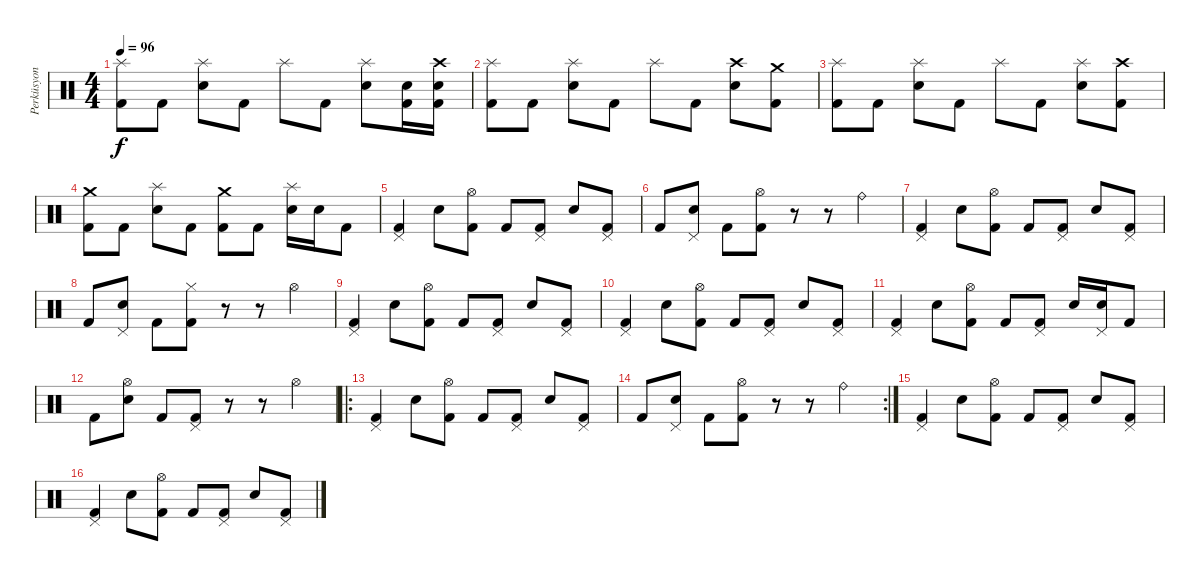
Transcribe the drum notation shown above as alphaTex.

\track ("Perküsyon" "Perküsyon") {instrument percussion}
\staff {score}
\articulation defaults
\ts (4 4)
\tempo 96
\clef neutral
\ks c
("Kick (hit) 2" "Splash (hit)").8{dy f} "Kick (hit) 2".8 ("Snare (hit) 2" "Splash (hit)").8 "Kick (hit) 2".8 "Splash (hit)".8 "Kick (hit) 2".8 ("Snare (hit) 2" "Splash (hit)").8 ("Kick (hit) 2" "Snare (hit) 2").16 ("Kick (hit) 2" "Crash high (hit)" "Snare (hit) 2").16 |
("Kick (hit) 2" "Splash (hit)").8 "Kick (hit) 2".8 ("Snare (hit) 2" "Splash (hit)").8 "Kick (hit) 2".8 "Splash (hit)".8 "Kick (hit) 2".8 ("Snare (hit) 2" "Crash high (hit)").8 ("Kick (hit) 2" "Crash medium (hit)").8 |
("Kick (hit) 2" "Splash (hit)").8 "Kick (hit) 2".8 ("Snare (hit) 2" "Splash (hit)").8 "Kick (hit) 2".8 "Splash (hit)".8 "Kick (hit) 2".8 ("Snare (hit) 2" "Splash (hit)").8 ("Kick (hit) 2" "Crash high (hit)").8 |
("Kick (hit) 2" "Crash medium (hit)").8 "Kick (hit) 2".8 ("Snare (hit) 2" "Splash (hit)").8 "Kick (hit) 2".8 ("Kick (hit) 2" "Crash medium (hit)").8 "Kick (hit) 2".8 ("Snare (hit) 2" "Splash (hit)").16 "Snare (hit) 2".16 "Kick (hit) 2".8 |
("Kick (hit) 2" "Pedal Hi-Hat (hit)").4 "Snare (hit) 2".8 ("Kick (hit) 2" "Hi-Hat (open)").8 "Kick (hit) 2".8 ("Kick (hit) 2" "Pedal Hi-Hat (hit)").8 "Snare (hit) 2".8 ("Kick (hit) 2" "Pedal Hi-Hat (hit)").8 |
"Kick (hit) 2".8 ("Snare (hit) 2" "Pedal Hi-Hat (hit)").8 "Kick (hit) 2".8 ("Kick (hit) 2" "Hi-Hat (open)").8 r.8 r.8 "Ride (bell)".4 |
("Kick (hit) 2" "Pedal Hi-Hat (hit)").4 "Snare (hit) 2".8 ("Kick (hit) 2" "Hi-Hat (open)").8 "Kick (hit) 2".8 ("Kick (hit) 2" "Pedal Hi-Hat (hit)").8 "Snare (hit) 2".8 ("Kick (hit) 2" "Pedal Hi-Hat (hit)").8 |
"Kick (hit) 2".8 ("Snare (hit) 2" "Pedal Hi-Hat (hit)").8 "Kick (hit) 2".8 ("Kick (hit) 2" "Hi-Hat (closed)").8 r.8 r.8 "Hi-Hat (open)".4 |
("Kick (hit) 2" "Pedal Hi-Hat (hit)").4 "Snare (hit) 2".8 ("Kick (hit) 2" "Hi-Hat (open)").8 "Kick (hit) 2".8 ("Kick (hit) 2" "Pedal Hi-Hat (hit)").8 "Snare (hit) 2".8 ("Kick (hit) 2" "Pedal Hi-Hat (hit)").8 |
("Kick (hit) 2" "Pedal Hi-Hat (hit)").4 "Snare (hit) 2".8 ("Kick (hit) 2" "Hi-Hat (open)").8 "Kick (hit) 2".8 ("Kick (hit) 2" "Pedal Hi-Hat (hit)").8 "Snare (hit) 2".8 ("Kick (hit) 2" "Pedal Hi-Hat (hit)").8 |
("Kick (hit) 2" "Pedal Hi-Hat (hit)").4 "Snare (hit) 2".8 ("Kick (hit) 2" "Hi-Hat (open)").8 "Kick (hit) 2".8 ("Kick (hit) 2" "Pedal Hi-Hat (hit)").8 "Snare (hit) 2".16 ("Snare (hit) 2" "Pedal Hi-Hat (hit)").16 "Kick (hit) 2".8 |
"Kick (hit) 2".8 ("Snare (hit) 2" "Hi-Hat (open)").8 "Kick (hit) 2".8 ("Kick (hit) 2" "Pedal Hi-Hat (hit)").8 r.8 r.8 "Hi-Hat (open)".4 |
\ro
("Kick (hit) 2" "Pedal Hi-Hat (hit)").4 "Snare (hit) 2".8 ("Kick (hit) 2" "Hi-Hat (open)").8 "Kick (hit) 2".8 ("Kick (hit) 2" "Pedal Hi-Hat (hit)").8 "Snare (hit) 2".8 ("Kick (hit) 2" "Pedal Hi-Hat (hit)").8 |
\rc 2 "Kick (hit) 2".8
("Snare (hit) 2" "Pedal Hi-Hat (hit)").8 "Kick (hit) 2".8 ("Kick (hit) 2" "Hi-Hat (open)").8 r.8 r.8 "Ride (bell)".4 |
("Kick (hit) 2" "Pedal Hi-Hat (hit)").4 "Snare (hit) 2".8 ("Kick (hit) 2" "Hi-Hat (open)").8 "Kick (hit) 2".8 ("Kick (hit) 2" "Pedal Hi-Hat (hit)").8 "Snare (hit) 2".8 ("Kick (hit) 2" "Pedal Hi-Hat (hit)").8 |
("Kick (hit) 2" "Pedal Hi-Hat (hit)").4 "Snare (hit) 2".8 ("Kick (hit) 2" "Hi-Hat (open)").8 "Kick (hit) 2".8 ("Kick (hit) 2" "Pedal Hi-Hat (hit)").8 "Snare (hit) 2".8 ("Kick (hit) 2" "Pedal Hi-Hat (hit)").8
